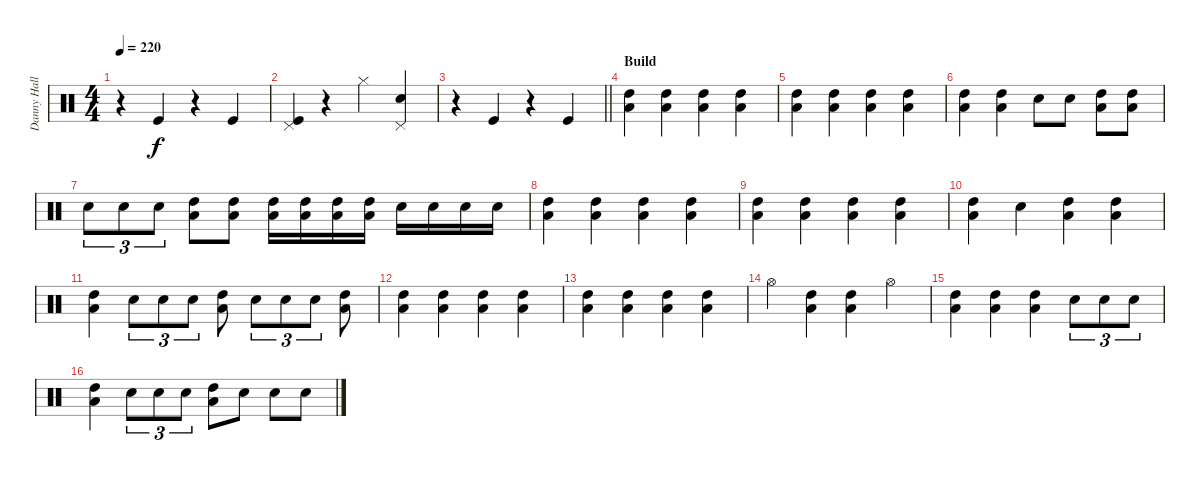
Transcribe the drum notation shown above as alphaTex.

\track ("Danny Hall" "Danny Hall") {instrument percussion}
\staff {score}
\articulation defaults
\ts (4 4)
\tempo 220
\clef neutral
\ks c
r.4{dy f} "Kick (hit)".4 r.4 "Kick (hit)".4 |
("Pedal Hi-Hat (hit)" "Kick (hit)").4 r.4 "Hi-Hat (closed)".4 ("Pedal Hi-Hat (hit)" "Snare (hit) 2").4 |
\barLineRight lightlight
r.4 "Kick (hit)".4 r.4 "Kick (hit)".4 |
\section ("" "Build")
("High Tom (hit)" "Low Tom (hit)").4 ("High Tom (hit)" "Low Tom (hit)").4 ("High Tom (hit)" "Low Tom (hit)").4 ("High Tom (hit)" "Low Tom (hit)").4 |
("High Tom (hit)" "Low Tom (hit)").4 ("High Tom (hit)" "Low Tom (hit)").4 ("High Tom (hit)" "Low Tom (hit)").4 ("High Tom (hit)" "Low Tom (hit)").4 |
("High Tom (hit)" "Low Tom (hit)").4 ("High Tom (hit)" "Low Tom (hit)").4 "Snare (hit) 2".8 "Snare (hit) 2".8 ("High Tom (hit)" "Low Tom (hit)").8 ("High Tom (hit)" "Low Tom (hit)").8 |
"Snare (hit) 2".8{tu (3 2)} "Snare (hit) 2".8{tu (3 2)} "Snare (hit) 2".8{tu (3 2)} ("High Tom (hit)" "Low Tom (hit)").8 ("High Tom (hit)" "Low Tom (hit)").8 ("High Tom (hit)" "Low Tom (hit)").16 ("High Tom (hit)" "Low Tom (hit)").16 ("High Tom (hit)" "Low Tom (hit)").16 ("High Tom (hit)" "Low Tom (hit)").16 "Snare (hit) 2".16 "Snare (hit) 2".16 "Snare (hit) 2".16 "Snare (hit) 2".16 |
("High Tom (hit)" "Low Tom (hit)").4 ("High Tom (hit)" "Low Tom (hit)").4 ("High Tom (hit)" "Low Tom (hit)").4 ("High Tom (hit)" "Low Tom (hit)").4 |
("High Tom (hit)" "Low Tom (hit)").4 ("High Tom (hit)" "Low Tom (hit)").4 ("High Tom (hit)" "Low Tom (hit)").4 ("High Tom (hit)" "Low Tom (hit)").4 |
("High Tom (hit)" "Low Tom (hit)").4 "Snare (hit) 2".4 ("High Tom (hit)" "Low Tom (hit)").4 ("High Tom (hit)" "Low Tom (hit)").4 |
("High Tom (hit)" "Low Tom (hit)").4 "Snare (hit) 2".8{tu (3 2)} "Snare (hit) 2".8{tu (3 2)} "Snare (hit) 2".8{tu (3 2)} ("High Tom (hit)" "Low Tom (hit)").8 "Snare (hit) 2".8{tu (3 2)} "Snare (hit) 2".8{tu (3 2)} "Snare (hit) 2".8{tu (3 2)} ("High Tom (hit)" "Low Tom (hit)").8 |
("High Tom (hit)" "Low Tom (hit)").4 ("High Tom (hit)" "Low Tom (hit)").4 ("High Tom (hit)" "Low Tom (hit)").4 ("High Tom (hit)" "Low Tom (hit)").4 |
("High Tom (hit)" "Low Tom (hit)").4 ("High Tom (hit)" "Low Tom (hit)").4 ("High Tom (hit)" "Low Tom (hit)").4 ("High Tom (hit)" "Low Tom (hit)").4 |
"Hi-Hat (open)".4 ("High Tom (hit)" "Low Tom (hit)").4 ("High Tom (hit)" "Low Tom (hit)").4 "Hi-Hat (open)".4 |
("High Tom (hit)" "Low Tom (hit)").4 ("High Tom (hit)" "Low Tom (hit)").4 ("High Tom (hit)" "Low Tom (hit)").4 "Snare (hit) 2".8{tu (3 2)} "Snare (hit) 2".8{tu (3 2)} "Snare (hit) 2".8{tu (3 2)} |
("High Tom (hit)" "Low Tom (hit)").4 "Snare (hit) 2".8{tu (3 2)} "Snare (hit) 2".8{tu (3 2)} "Snare (hit) 2".8{tu (3 2)} ("High Tom (hit)" "Low Tom (hit)").8 "Snare (hit) 2".8 "Snare (hit) 2".8 "Snare (hit) 2".8
